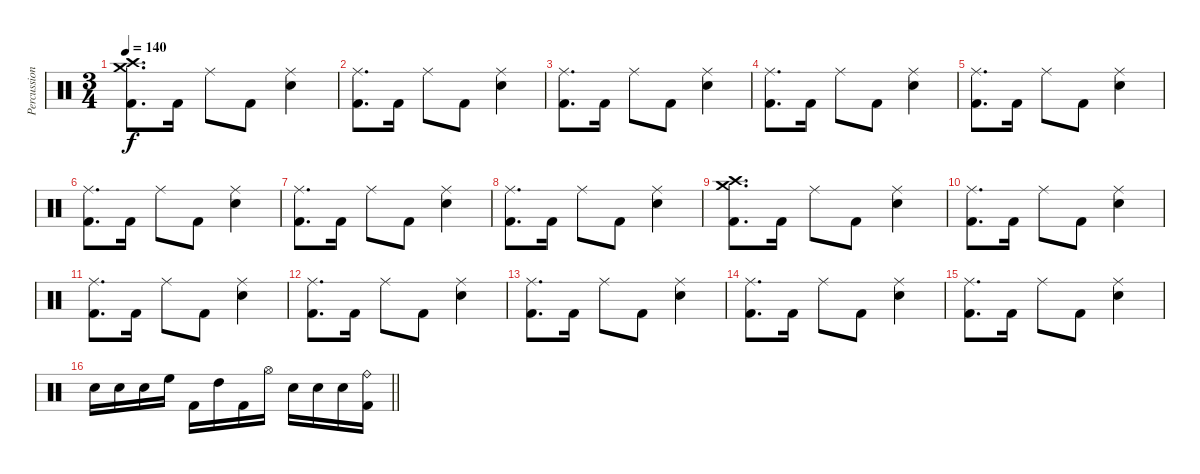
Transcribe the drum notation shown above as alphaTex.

\track ("Percussion" "Percussion") {instrument percussion}
\staff {score}
\articulation defaults
\ts (3 4)
\tempo 140
\clef neutral
\ks c
("Crash medium (hit)" "Crash high (hit)" "Kick (hit) 2").8{d dy f} "Kick (hit) 2".16 "Ride (middle)".8 "Kick (hit) 2".8 ("Ride (middle)" "Electric Snare (hit)").4 |
("Ride (middle)" "Kick (hit) 2").8{d} "Kick (hit) 2".16 "Ride (middle)".8 "Kick (hit) 2".8 ("Ride (middle)" "Electric Snare (hit)").4 |
("Ride (middle)" "Kick (hit) 2").8{d} "Kick (hit) 2".16 "Ride (middle)".8 "Kick (hit) 2".8 ("Ride (middle)" "Electric Snare (hit)").4 |
("Ride (middle)" "Kick (hit) 2").8{d} "Kick (hit) 2".16 "Ride (middle)".8 "Kick (hit) 2".8 ("Ride (middle)" "Electric Snare (hit)").4 |
("Ride (middle)" "Kick (hit) 2").8{d} "Kick (hit) 2".16 "Ride (middle)".8 "Kick (hit) 2".8 ("Ride (middle)" "Electric Snare (hit)").4 |
("Ride (middle)" "Kick (hit) 2").8{d} "Kick (hit) 2".16 "Ride (middle)".8 "Kick (hit) 2".8 ("Ride (middle)" "Electric Snare (hit)").4 |
("Ride (middle)" "Kick (hit) 2").8{d} "Kick (hit) 2".16 "Ride (middle)".8 "Kick (hit) 2".8 ("Ride (middle)" "Electric Snare (hit)").4 |
("Ride (middle)" "Kick (hit) 2").8{d} "Kick (hit) 2".16 "Ride (middle)".8 "Kick (hit) 2".8 ("Ride (middle)" "Electric Snare (hit)").4 |
("Crash medium (hit)" "Crash high (hit)" "Kick (hit) 2").8{d} "Kick (hit) 2".16 "Ride (middle)".8 "Kick (hit) 2".8 ("Ride (middle)" "Electric Snare (hit)").4 |
("Ride (middle)" "Kick (hit) 2").8{d} "Kick (hit) 2".16 "Ride (middle)".8 "Kick (hit) 2".8 ("Ride (middle)" "Electric Snare (hit)").4 |
("Ride (middle)" "Kick (hit) 2").8{d} "Kick (hit) 2".16 "Ride (middle)".8 "Kick (hit) 2".8 ("Ride (middle)" "Electric Snare (hit)").4 |
("Ride (middle)" "Kick (hit) 2").8{d} "Kick (hit) 2".16 "Ride (middle)".8 "Kick (hit) 2".8 ("Ride (middle)" "Electric Snare (hit)").4 |
("Ride (middle)" "Kick (hit) 2").8{d} "Kick (hit) 2".16 "Ride (middle)".8 "Kick (hit) 2".8 ("Ride (middle)" "Electric Snare (hit)").4 |
("Ride (middle)" "Kick (hit) 2").8{d} "Kick (hit) 2".16 "Ride (middle)".8 "Kick (hit) 2".8 ("Ride (middle)" "Electric Snare (hit)").4 |
("Ride (middle)" "Kick (hit) 2").8{d} "Kick (hit) 2".16 "Ride (middle)".8 "Kick (hit) 2".8 ("Ride (middle)" "Electric Snare (hit)").4 |
\barLineRight lightlight "Electric Snare (hit)".16 "Electric Snare (hit)".16 "Electric Snare (hit)".16 "High Floor Tom (hit)".16 "Kick (hit) 2".16 "High Tom (hit)".16 "Kick (hit) 2".16 "Hi-Hat (open)".16 "Electric Snare (hit)".16 "Electric Snare (hit)".16 "Electric Snare (hit)".16
("Ride (bell)" "Kick (hit) 2").16
